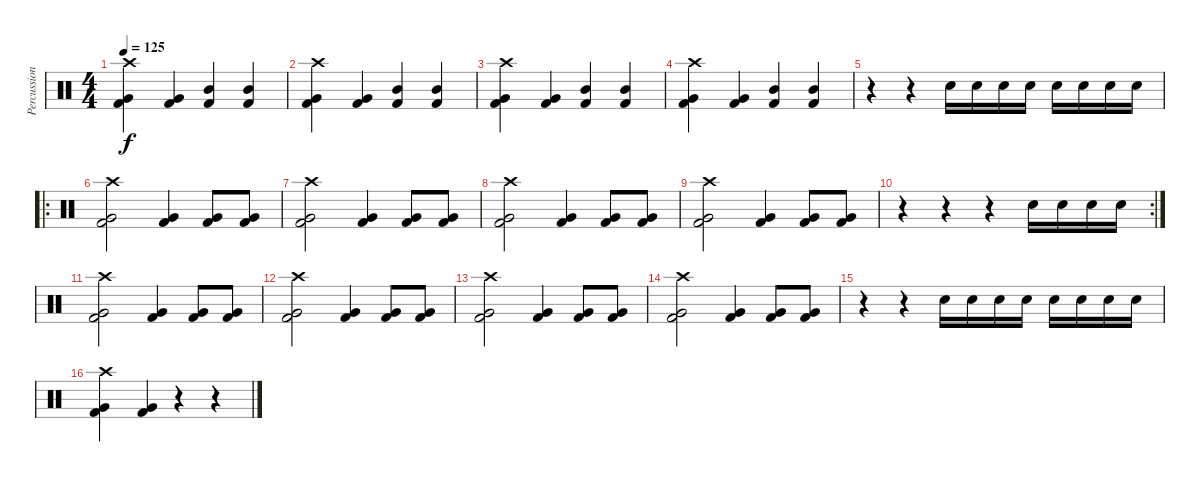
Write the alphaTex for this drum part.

\track ("Percussion" "Percussion") {instrument percussion}
\staff {score}
\articulation defaults
\ts (4 4)
\tempo 125
\clef neutral
\ks c
("Crash high (hit)" "Very Low Tom (hit)" "Kick (hit) 2").4{dy f} ("Very Low Tom (hit)" "Kick (hit) 2").4 ("Mid Tom (hit)" "Kick (hit) 2").4 ("Mid Tom (hit)" "Kick (hit) 2").4 |
("Crash high (hit)" "Very Low Tom (hit)" "Kick (hit) 2").4 ("Very Low Tom (hit)" "Kick (hit) 2").4 ("Mid Tom (hit)" "Kick (hit) 2").4 ("Mid Tom (hit)" "Kick (hit) 2").4 |
("Crash high (hit)" "Very Low Tom (hit)" "Kick (hit) 2").4 ("Very Low Tom (hit)" "Kick (hit) 2").4 ("Mid Tom (hit)" "Kick (hit) 2").4 ("Mid Tom (hit)" "Kick (hit) 2").4 |
("Crash high (hit)" "Very Low Tom (hit)" "Kick (hit) 2").4 ("Very Low Tom (hit)" "Kick (hit) 2").4 ("Mid Tom (hit)" "Kick (hit) 2").4 ("Mid Tom (hit)" "Kick (hit) 2").4 |
r.4 r.4 "Snare (hit) 2".16 "Snare (hit) 2".16 "Snare (hit) 2".16 "Snare (hit) 2".16 "Snare (hit) 2".16 "Snare (hit) 2".16 "Snare (hit) 2".16 "Snare (hit) 2".16 |
\ro
("Crash high (hit)" "Very Low Tom (hit)" "Kick (hit) 2").2 ("Very Low Tom (hit)" "Kick (hit) 2").4 ("Very Low Tom (hit)" "Kick (hit) 2").8 ("Very Low Tom (hit)" "Kick (hit) 2").8 |
("Crash high (hit)" "Very Low Tom (hit)" "Kick (hit) 2").2 ("Very Low Tom (hit)" "Kick (hit) 2").4 ("Very Low Tom (hit)" "Kick (hit) 2").8 ("Very Low Tom (hit)" "Kick (hit) 2").8 |
("Crash high (hit)" "Very Low Tom (hit)" "Kick (hit) 2").2 ("Very Low Tom (hit)" "Kick (hit) 2").4 ("Very Low Tom (hit)" "Kick (hit) 2").8 ("Very Low Tom (hit)" "Kick (hit) 2").8 |
("Crash high (hit)" "Very Low Tom (hit)" "Kick (hit) 2").2 ("Very Low Tom (hit)" "Kick (hit) 2").4 ("Very Low Tom (hit)" "Kick (hit) 2").8 ("Very Low Tom (hit)" "Kick (hit) 2").8 |
\rc 2
r.4 r.4 r.4 "Snare (hit) 2".16 "Snare (hit) 2".16 "Snare (hit) 2".16 "Snare (hit) 2".16 |
("Crash high (hit)" "Very Low Tom (hit)" "Kick (hit) 2").2 ("Very Low Tom (hit)" "Kick (hit) 2").4 ("Very Low Tom (hit)" "Kick (hit) 2").8 ("Very Low Tom (hit)" "Kick (hit) 2").8 |
("Crash high (hit)" "Very Low Tom (hit)" "Kick (hit) 2").2 ("Very Low Tom (hit)" "Kick (hit) 2").4 ("Very Low Tom (hit)" "Kick (hit) 2").8 ("Very Low Tom (hit)" "Kick (hit) 2").8 |
("Crash high (hit)" "Very Low Tom (hit)" "Kick (hit) 2").2 ("Very Low Tom (hit)" "Kick (hit) 2").4 ("Very Low Tom (hit)" "Kick (hit) 2").8 ("Very Low Tom (hit)" "Kick (hit) 2").8 |
("Crash high (hit)" "Very Low Tom (hit)" "Kick (hit) 2").2 ("Very Low Tom (hit)" "Kick (hit) 2").4 ("Very Low Tom (hit)" "Kick (hit) 2").8 ("Very Low Tom (hit)" "Kick (hit) 2").8 |
r.4 r.4 "Snare (hit) 2".16 "Snare (hit) 2".16 "Snare (hit) 2".16 "Snare (hit) 2".16 "Snare (hit) 2".16 "Snare (hit) 2".16 "Snare (hit) 2".16 "Snare (hit) 2".16 |
("Crash high (hit)" "Very Low Tom (hit)" "Kick (hit) 2").4 ("Very Low Tom (hit)" "Kick (hit) 2").4 r.4 r.4
